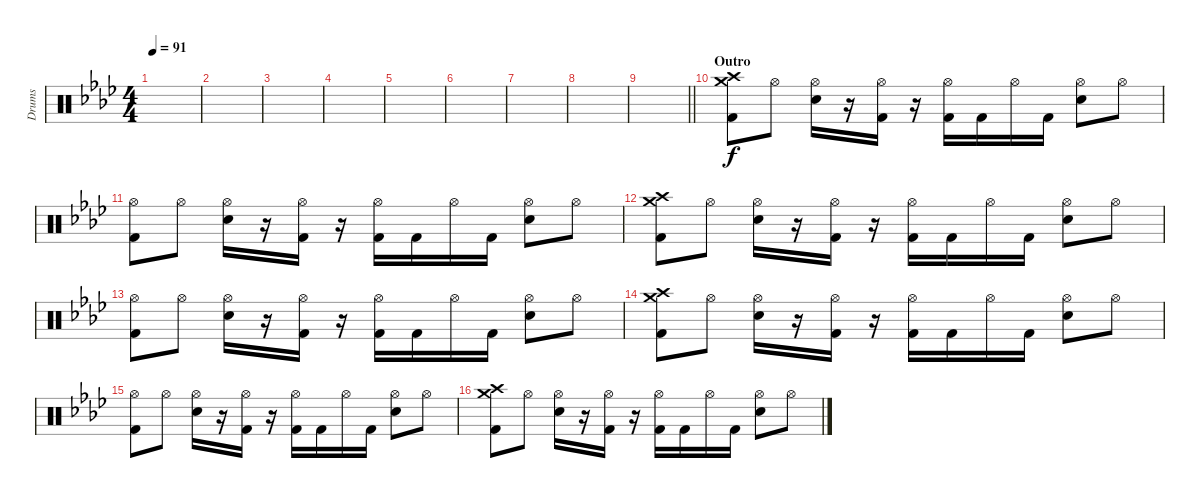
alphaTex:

\track ("Drums" "Drums") {instrument percussion}
\staff {score}
\articulation defaults
\ts (4 4)
\tempo 91
\clef neutral
\ks fminor
|
|
|
|
|
|
|
|
\barLineRight lightlight
|
\section ("" "Outro")
("Crash medium (hit)" "Crash high (hit)" "Kick (hit) 2").8{volume 16} "Hi-Hat (open)".8 ("Hi-Hat (open)" "Electric Snare (hit)").16 r.16 ("Hi-Hat (open)" "Kick (hit) 2").16 r.16 ("Hi-Hat (open)" "Kick (hit) 2").16 "Kick (hit) 2".16 "Hi-Hat (open)".16 "Kick (hit) 2".16 ("Hi-Hat (open)" "Electric Snare (hit)").8 "Hi-Hat (open)".8 |
("Hi-Hat (open)" "Kick (hit) 2").8 "Hi-Hat (open)".8 ("Hi-Hat (open)" "Electric Snare (hit)").16 r.16 ("Hi-Hat (open)" "Kick (hit) 2").16 r.16 ("Hi-Hat (open)" "Kick (hit) 2").16 "Kick (hit) 2".16 "Hi-Hat (open)".16 "Kick (hit) 2".16 ("Hi-Hat (open)" "Electric Snare (hit)").8 "Hi-Hat (open)".8 |
("Crash medium (hit)" "Crash high (hit)" "Kick (hit) 2").8 "Hi-Hat (open)".8 ("Hi-Hat (open)" "Electric Snare (hit)").16 r.16 ("Hi-Hat (open)" "Kick (hit) 2").16 r.16 ("Hi-Hat (open)" "Kick (hit) 2").16 "Kick (hit) 2".16 "Hi-Hat (open)".16 "Kick (hit) 2".16 ("Hi-Hat (open)" "Electric Snare (hit)").8 "Hi-Hat (open)".8 |
("Hi-Hat (open)" "Kick (hit) 2").8 "Hi-Hat (open)".8 ("Hi-Hat (open)" "Electric Snare (hit)").16 r.16 ("Hi-Hat (open)" "Kick (hit) 2").16 r.16 ("Hi-Hat (open)" "Kick (hit) 2").16 "Kick (hit) 2".16 "Hi-Hat (open)".16 "Kick (hit) 2".16 ("Hi-Hat (open)" "Electric Snare (hit)").8 "Hi-Hat (open)".8 |
("Crash medium (hit)" "Crash high (hit)" "Kick (hit) 2").8 "Hi-Hat (open)".8 ("Hi-Hat (open)" "Electric Snare (hit)").16 r.16 ("Hi-Hat (open)" "Kick (hit) 2").16 r.16 ("Hi-Hat (open)" "Kick (hit) 2").16 "Kick (hit) 2".16 "Hi-Hat (open)".16 "Kick (hit) 2".16 ("Hi-Hat (open)" "Electric Snare (hit)").8 "Hi-Hat (open)".8 |
("Hi-Hat (open)" "Kick (hit) 2").8 "Hi-Hat (open)".8 ("Hi-Hat (open)" "Electric Snare (hit)").16 r.16 ("Hi-Hat (open)" "Kick (hit) 2").16 r.16 ("Hi-Hat (open)" "Kick (hit) 2").16 "Kick (hit) 2".16 "Hi-Hat (open)".16 "Kick (hit) 2".16 ("Hi-Hat (open)" "Electric Snare (hit)").8 "Hi-Hat (open)".8 |
("Crash medium (hit)" "Crash high (hit)" "Kick (hit) 2").8 "Hi-Hat (open)".8 ("Hi-Hat (open)" "Electric Snare (hit)").16 r.16 ("Hi-Hat (open)" "Kick (hit) 2").16 r.16 ("Hi-Hat (open)" "Kick (hit) 2").16 "Kick (hit) 2".16 "Hi-Hat (open)".16 "Kick (hit) 2".16 ("Hi-Hat (open)" "Electric Snare (hit)").8 "Hi-Hat (open)".8
